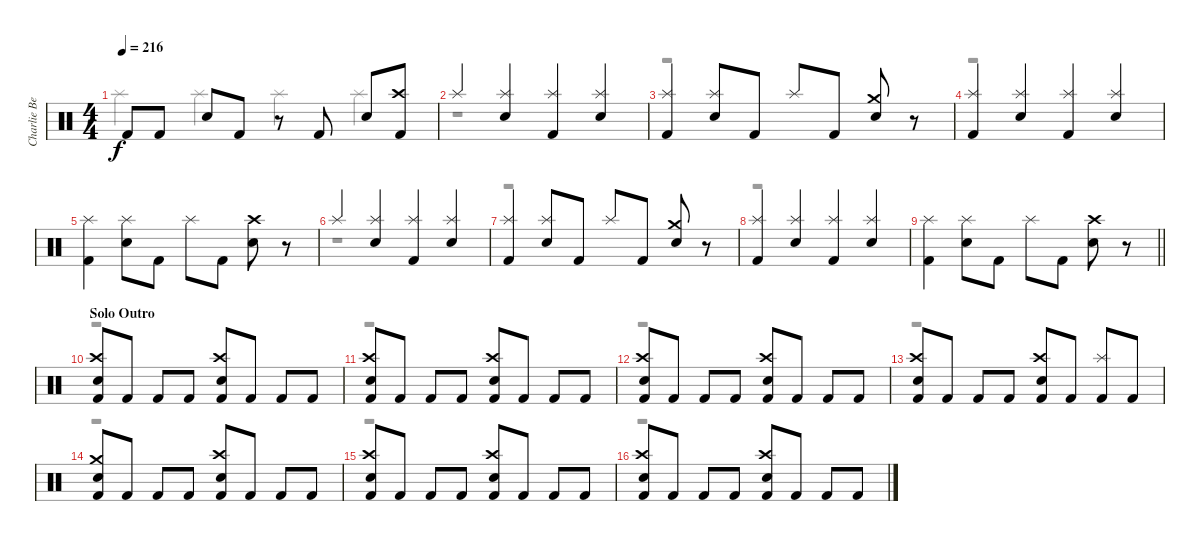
\track ("Charlie Benante" "Charlie Be") {instrument percussion}
\staff {score}
\articulation defaults
\voice
\ts (4 4)
\tempo 216
\clef neutral
\ks c "Kick (hit) 2".8{dy f} "Kick (hit) 2".8 "Electric Snare (hit)".8 "Kick (hit) 2".8
r.8 "Kick (hit) 2".8 "Electric Snare (hit)".8 ("Crash high (hit)" "Kick (hit) 2").8 |
"Splash (hit)".4 ("Splash (hit)" "Electric Snare (hit)").4 ("Splash (hit)" "Kick (hit) 2").4 ("Splash (hit)" "Electric Snare (hit)").4 |
("Splash (hit)" "Kick (hit) 2").4 ("Splash (hit)" "Electric Snare (hit)").8 "Kick (hit) 2".8 "Splash (hit)".8 "Kick (hit) 2".8 ("Crash medium (hit)" "Electric Snare (hit)").8 r.8 |
("Splash (hit)" "Kick (hit) 2").4 ("Splash (hit)" "Electric Snare (hit)").4 ("Splash (hit)" "Kick (hit) 2").4 ("Splash (hit)" "Electric Snare (hit)").4 |
("Splash (hit)" "Kick (hit) 2").4 ("Splash (hit)" "Electric Snare (hit)").8 "Kick (hit) 2".8 "Splash (hit)".8 "Kick (hit) 2".8 ("Crash high (hit)" "Electric Snare (hit)").8 r.8 |
"Splash (hit)".4 ("Splash (hit)" "Electric Snare (hit)").4 ("Splash (hit)" "Kick (hit) 2").4 ("Splash (hit)" "Electric Snare (hit)").4 |
("Splash (hit)" "Kick (hit) 2").4 ("Splash (hit)" "Electric Snare (hit)").8 "Kick (hit) 2".8 "Splash (hit)".8 "Kick (hit) 2".8 ("Crash medium (hit)" "Electric Snare (hit)").8 r.8 |
("Splash (hit)" "Kick (hit) 2").4 ("Splash (hit)" "Electric Snare (hit)").4 ("Splash (hit)" "Kick (hit) 2").4 ("Splash (hit)" "Electric Snare (hit)").4 |
\barLineRight lightlight
("Splash (hit)" "Kick (hit) 2").4 ("Splash (hit)" "Electric Snare (hit)").8 "Kick (hit) 2".8 "Splash (hit)".8 "Kick (hit) 2".8 ("Crash high (hit)" "Electric Snare (hit)").8 r.8 |
\section ("" "Solo Outro")
("Crash high (hit)" "Electric Snare (hit)" "Kick (hit) 2").8 "Kick (hit) 2".8 "Kick (hit) 2".8 "Kick (hit) 2".8 ("Crash high (hit)" "Electric Snare (hit)" "Kick (hit) 2").8 "Kick (hit) 2".8 "Kick (hit) 2".8 "Kick (hit) 2".8 |
("Crash high (hit)" "Electric Snare (hit)" "Kick (hit) 2").8 "Kick (hit) 2".8 "Kick (hit) 2".8 "Kick (hit) 2".8 ("Crash high (hit)" "Electric Snare (hit)" "Kick (hit) 2").8 "Kick (hit) 2".8 "Kick (hit) 2".8 "Kick (hit) 2".8 |
("Crash high (hit)" "Electric Snare (hit)" "Kick (hit) 2").8 "Kick (hit) 2".8 "Kick (hit) 2".8 "Kick (hit) 2".8 ("Crash high (hit)" "Electric Snare (hit)" "Kick (hit) 2").8 "Kick (hit) 2".8 "Kick (hit) 2".8 "Kick (hit) 2".8 |
("Crash high (hit)" "Electric Snare (hit)" "Kick (hit) 2").8 "Kick (hit) 2".8 "Kick (hit) 2".8 "Kick (hit) 2".8 ("Crash high (hit)" "Electric Snare (hit)" "Kick (hit) 2").8 "Kick (hit) 2".8 ("Splash (hit)" "Kick (hit) 2").8 "Kick (hit) 2".8 |
("Crash medium (hit)" "Electric Snare (hit)" "Kick (hit) 2").8 "Kick (hit) 2".8 "Kick (hit) 2".8 "Kick (hit) 2".8 ("Crash high (hit)" "Electric Snare (hit)" "Kick (hit) 2").8 "Kick (hit) 2".8 "Kick (hit) 2".8 "Kick (hit) 2".8 |
("Crash high (hit)" "Electric Snare (hit)" "Kick (hit) 2").8 "Kick (hit) 2".8 "Kick (hit) 2".8 "Kick (hit) 2".8 ("Crash high (hit)" "Electric Snare (hit)" "Kick (hit) 2").8 "Kick (hit) 2".8 "Kick (hit) 2".8 "Kick (hit) 2".8 |
("Crash high (hit)" "Electric Snare (hit)" "Kick (hit) 2").8 "Kick (hit) 2".8 "Kick (hit) 2".8 "Kick (hit) 2".8 ("Crash high (hit)" "Electric Snare (hit)" "Kick (hit) 2").8 "Kick (hit) 2".8 "Kick (hit) 2".8 "Kick (hit) 2".8
\voice
\clef neutral
\ottava regular
\simile none
\ks c "Splash (hit)".4{dy f} "Splash (hit)".4 "Splash (hit)".4 "Splash (hit)".4
|
r.1 |
r.1 |
r.1 |
|
r.1 |
r.1 |
r.1 |
\barLineRight lightlight
|
r.1 |
r.1 |
r.1 |
r.1 |
r.1 |
r.1 |
r.1
